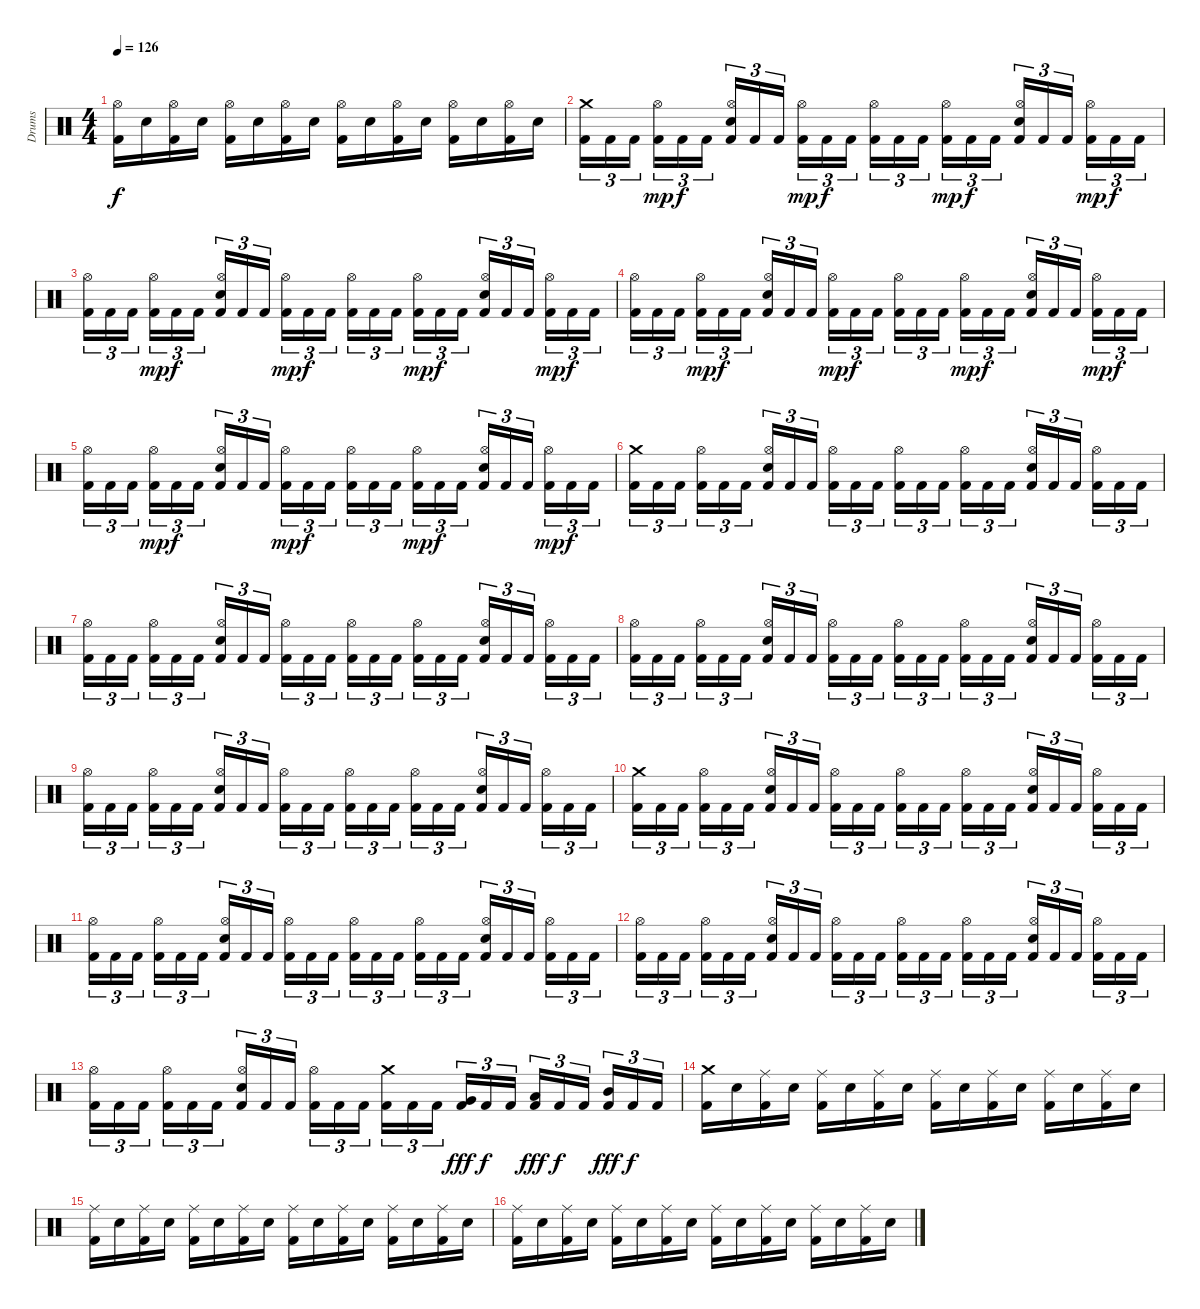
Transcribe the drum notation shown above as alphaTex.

\track ("Drums" "Drums") {instrument percussion}
\staff {score}
\articulation defaults
\ts (4 4)
\tempo 126
\clef neutral
\ks c
("Kick (hit) 2" "Hi-Hat (open)").16{dy f} "Electric Snare (hit)".16 ("Kick (hit) 2" "Hi-Hat (open)").16 "Electric Snare (hit)".16 ("Kick (hit) 2" "Hi-Hat (open)").16 "Electric Snare (hit)".16 ("Kick (hit) 2" "Hi-Hat (open)").16 "Electric Snare (hit)".16 ("Kick (hit) 2" "Hi-Hat (open)").16 "Electric Snare (hit)".16 ("Kick (hit) 2" "Hi-Hat (open)").16 "Electric Snare (hit)".16 ("Kick (hit) 2" "Hi-Hat (open)").16 "Electric Snare (hit)".16 ("Kick (hit) 2" "Hi-Hat (open)").16 "Electric Snare (hit)".16 |
("Kick (hit) 2" "Crash medium (hit)").16{tu (3 2)} "Kick (hit) 2".16{tu (3 2)} "Kick (hit) 2".16{tu (3 2)} ("Kick (hit) 2" "Hi-Hat (open)").16{tu (3 2) dy mp} "Kick (hit) 2".16{tu (3 2) dy f} "Kick (hit) 2".16{tu (3 2)} ("Kick (hit) 2" "Electric Snare (hit)" "Hi-Hat (open)").16{tu (3 2)} "Kick (hit) 2".16{tu (3 2)} "Kick (hit) 2".16{tu (3 2)} ("Kick (hit) 2" "Hi-Hat (open)").16{tu (3 2) dy mp} "Kick (hit) 2".16{tu (3 2) dy f} "Kick (hit) 2".16{tu (3 2)} ("Kick (hit) 2" "Hi-Hat (open)").16{tu (3 2)} "Kick (hit) 2".16{tu (3 2)} "Kick (hit) 2".16{tu (3 2)} ("Kick (hit) 2" "Hi-Hat (open)").16{tu (3 2) dy mp} "Kick (hit) 2".16{tu (3 2) dy f} "Kick (hit) 2".16{tu (3 2)} ("Kick (hit) 2" "Electric Snare (hit)" "Hi-Hat (open)").16{tu (3 2)} "Kick (hit) 2".16{tu (3 2)} "Kick (hit) 2".16{tu (3 2)} ("Kick (hit) 2" "Hi-Hat (open)").16{tu (3 2) dy mp} "Kick (hit) 2".16{tu (3 2) dy f} "Kick (hit) 2".16{tu (3 2)} |
("Kick (hit) 2" "Hi-Hat (open)").16{tu (3 2)} "Kick (hit) 2".16{tu (3 2)} "Kick (hit) 2".16{tu (3 2)} ("Kick (hit) 2" "Hi-Hat (open)").16{tu (3 2) dy mp} "Kick (hit) 2".16{tu (3 2) dy f} "Kick (hit) 2".16{tu (3 2)} ("Kick (hit) 2" "Electric Snare (hit)" "Hi-Hat (open)").16{tu (3 2)} "Kick (hit) 2".16{tu (3 2)} "Kick (hit) 2".16{tu (3 2)} ("Kick (hit) 2" "Hi-Hat (open)").16{tu (3 2) dy mp} "Kick (hit) 2".16{tu (3 2) dy f} "Kick (hit) 2".16{tu (3 2)} ("Kick (hit) 2" "Hi-Hat (open)").16{tu (3 2)} "Kick (hit) 2".16{tu (3 2)} "Kick (hit) 2".16{tu (3 2)} ("Kick (hit) 2" "Hi-Hat (open)").16{tu (3 2) dy mp} "Kick (hit) 2".16{tu (3 2) dy f} "Kick (hit) 2".16{tu (3 2)} ("Kick (hit) 2" "Electric Snare (hit)" "Hi-Hat (open)").16{tu (3 2)} "Kick (hit) 2".16{tu (3 2)} "Kick (hit) 2".16{tu (3 2)} ("Kick (hit) 2" "Hi-Hat (open)").16{tu (3 2) dy mp} "Kick (hit) 2".16{tu (3 2) dy f} "Kick (hit) 2".16{tu (3 2)} |
("Kick (hit) 2" "Hi-Hat (open)").16{tu (3 2)} "Kick (hit) 2".16{tu (3 2)} "Kick (hit) 2".16{tu (3 2)} ("Kick (hit) 2" "Hi-Hat (open)").16{tu (3 2) dy mp} "Kick (hit) 2".16{tu (3 2) dy f} "Kick (hit) 2".16{tu (3 2)} ("Kick (hit) 2" "Electric Snare (hit)" "Hi-Hat (open)").16{tu (3 2)} "Kick (hit) 2".16{tu (3 2)} "Kick (hit) 2".16{tu (3 2)} ("Kick (hit) 2" "Hi-Hat (open)").16{tu (3 2) dy mp} "Kick (hit) 2".16{tu (3 2) dy f} "Kick (hit) 2".16{tu (3 2)} ("Kick (hit) 2" "Hi-Hat (open)").16{tu (3 2)} "Kick (hit) 2".16{tu (3 2)} "Kick (hit) 2".16{tu (3 2)} ("Kick (hit) 2" "Hi-Hat (open)").16{tu (3 2) dy mp} "Kick (hit) 2".16{tu (3 2) dy f} "Kick (hit) 2".16{tu (3 2)} ("Kick (hit) 2" "Electric Snare (hit)" "Hi-Hat (open)").16{tu (3 2)} "Kick (hit) 2".16{tu (3 2)} "Kick (hit) 2".16{tu (3 2)} ("Kick (hit) 2" "Hi-Hat (open)").16{tu (3 2) dy mp} "Kick (hit) 2".16{tu (3 2) dy f} "Kick (hit) 2".16{tu (3 2)} |
("Kick (hit) 2" "Hi-Hat (open)").16{tu (3 2)} "Kick (hit) 2".16{tu (3 2)} "Kick (hit) 2".16{tu (3 2)} ("Kick (hit) 2" "Hi-Hat (open)").16{tu (3 2) dy mp} "Kick (hit) 2".16{tu (3 2) dy f} "Kick (hit) 2".16{tu (3 2)} ("Kick (hit) 2" "Electric Snare (hit)" "Hi-Hat (open)").16{tu (3 2)} "Kick (hit) 2".16{tu (3 2)} "Kick (hit) 2".16{tu (3 2)} ("Kick (hit) 2" "Hi-Hat (open)").16{tu (3 2) dy mp} "Kick (hit) 2".16{tu (3 2) dy f} "Kick (hit) 2".16{tu (3 2)} ("Kick (hit) 2" "Hi-Hat (open)").16{tu (3 2)} "Kick (hit) 2".16{tu (3 2)} "Kick (hit) 2".16{tu (3 2)} ("Kick (hit) 2" "Hi-Hat (open)").16{tu (3 2) dy mp} "Kick (hit) 2".16{tu (3 2) dy f} "Kick (hit) 2".16{tu (3 2)} ("Kick (hit) 2" "Electric Snare (hit)" "Hi-Hat (open)").16{tu (3 2)} "Kick (hit) 2".16{tu (3 2)} "Kick (hit) 2".16{tu (3 2)} ("Kick (hit) 2" "Hi-Hat (open)").16{tu (3 2) dy mp} "Kick (hit) 2".16{tu (3 2) dy f} "Kick (hit) 2".16{tu (3 2)} |
("Kick (hit) 2" "Crash medium (hit)").16{tu (3 2)} "Kick (hit) 2".16{tu (3 2)} "Kick (hit) 2".16{tu (3 2)} ("Kick (hit) 2" "Hi-Hat (open)").16{tu (3 2)} "Kick (hit) 2".16{tu (3 2)} "Kick (hit) 2".16{tu (3 2)} ("Kick (hit) 2" "Electric Snare (hit)" "Hi-Hat (open)").16{tu (3 2)} "Kick (hit) 2".16{tu (3 2)} "Kick (hit) 2".16{tu (3 2)} ("Kick (hit) 2" "Hi-Hat (open)").16{tu (3 2)} "Kick (hit) 2".16{tu (3 2)} "Kick (hit) 2".16{tu (3 2)} ("Kick (hit) 2" "Hi-Hat (open)").16{tu (3 2)} "Kick (hit) 2".16{tu (3 2)} "Kick (hit) 2".16{tu (3 2)} ("Kick (hit) 2" "Hi-Hat (open)").16{tu (3 2)} "Kick (hit) 2".16{tu (3 2)} "Kick (hit) 2".16{tu (3 2)} ("Kick (hit) 2" "Electric Snare (hit)" "Hi-Hat (open)").16{tu (3 2)} "Kick (hit) 2".16{tu (3 2)} "Kick (hit) 2".16{tu (3 2)} ("Kick (hit) 2" "Hi-Hat (open)").16{tu (3 2)} "Kick (hit) 2".16{tu (3 2)} "Kick (hit) 2".16{tu (3 2)} |
("Kick (hit) 2" "Hi-Hat (open)").16{tu (3 2)} "Kick (hit) 2".16{tu (3 2)} "Kick (hit) 2".16{tu (3 2)} ("Kick (hit) 2" "Hi-Hat (open)").16{tu (3 2)} "Kick (hit) 2".16{tu (3 2)} "Kick (hit) 2".16{tu (3 2)} ("Kick (hit) 2" "Electric Snare (hit)" "Hi-Hat (open)").16{tu (3 2)} "Kick (hit) 2".16{tu (3 2)} "Kick (hit) 2".16{tu (3 2)} ("Kick (hit) 2" "Hi-Hat (open)").16{tu (3 2)} "Kick (hit) 2".16{tu (3 2)} "Kick (hit) 2".16{tu (3 2)} ("Kick (hit) 2" "Hi-Hat (open)").16{tu (3 2)} "Kick (hit) 2".16{tu (3 2)} "Kick (hit) 2".16{tu (3 2)} ("Kick (hit) 2" "Hi-Hat (open)").16{tu (3 2)} "Kick (hit) 2".16{tu (3 2)} "Kick (hit) 2".16{tu (3 2)} ("Kick (hit) 2" "Electric Snare (hit)" "Hi-Hat (open)").16{tu (3 2)} "Kick (hit) 2".16{tu (3 2)} "Kick (hit) 2".16{tu (3 2)} ("Kick (hit) 2" "Hi-Hat (open)").16{tu (3 2)} "Kick (hit) 2".16{tu (3 2)} "Kick (hit) 2".16{tu (3 2)} |
("Kick (hit) 2" "Hi-Hat (open)").16{tu (3 2)} "Kick (hit) 2".16{tu (3 2)} "Kick (hit) 2".16{tu (3 2)} ("Kick (hit) 2" "Hi-Hat (open)").16{tu (3 2)} "Kick (hit) 2".16{tu (3 2)} "Kick (hit) 2".16{tu (3 2)} ("Kick (hit) 2" "Electric Snare (hit)" "Hi-Hat (open)").16{tu (3 2)} "Kick (hit) 2".16{tu (3 2)} "Kick (hit) 2".16{tu (3 2)} ("Kick (hit) 2" "Hi-Hat (open)").16{tu (3 2)} "Kick (hit) 2".16{tu (3 2)} "Kick (hit) 2".16{tu (3 2)} ("Kick (hit) 2" "Hi-Hat (open)").16{tu (3 2)} "Kick (hit) 2".16{tu (3 2)} "Kick (hit) 2".16{tu (3 2)} ("Kick (hit) 2" "Hi-Hat (open)").16{tu (3 2)} "Kick (hit) 2".16{tu (3 2)} "Kick (hit) 2".16{tu (3 2)} ("Kick (hit) 2" "Electric Snare (hit)" "Hi-Hat (open)").16{tu (3 2)} "Kick (hit) 2".16{tu (3 2)} "Kick (hit) 2".16{tu (3 2)} ("Kick (hit) 2" "Hi-Hat (open)").16{tu (3 2)} "Kick (hit) 2".16{tu (3 2)} "Kick (hit) 2".16{tu (3 2)} |
("Kick (hit) 2" "Hi-Hat (open)").16{tu (3 2)} "Kick (hit) 2".16{tu (3 2)} "Kick (hit) 2".16{tu (3 2)} ("Kick (hit) 2" "Hi-Hat (open)").16{tu (3 2)} "Kick (hit) 2".16{tu (3 2)} "Kick (hit) 2".16{tu (3 2)} ("Kick (hit) 2" "Electric Snare (hit)" "Hi-Hat (open)").16{tu (3 2)} "Kick (hit) 2".16{tu (3 2)} "Kick (hit) 2".16{tu (3 2)} ("Kick (hit) 2" "Hi-Hat (open)").16{tu (3 2)} "Kick (hit) 2".16{tu (3 2)} "Kick (hit) 2".16{tu (3 2)} ("Kick (hit) 2" "Hi-Hat (open)").16{tu (3 2)} "Kick (hit) 2".16{tu (3 2)} "Kick (hit) 2".16{tu (3 2)} ("Kick (hit) 2" "Hi-Hat (open)").16{tu (3 2)} "Kick (hit) 2".16{tu (3 2)} "Kick (hit) 2".16{tu (3 2)} ("Kick (hit) 2" "Electric Snare (hit)" "Hi-Hat (open)").16{tu (3 2)} "Kick (hit) 2".16{tu (3 2)} "Kick (hit) 2".16{tu (3 2)} ("Kick (hit) 2" "Hi-Hat (open)").16{tu (3 2)} "Kick (hit) 2".16{tu (3 2)} "Kick (hit) 2".16{tu (3 2)} |
("Kick (hit) 2" "Crash medium (hit)").16{tu (3 2)} "Kick (hit) 2".16{tu (3 2)} "Kick (hit) 2".16{tu (3 2)} ("Kick (hit) 2" "Hi-Hat (open)").16{tu (3 2)} "Kick (hit) 2".16{tu (3 2)} "Kick (hit) 2".16{tu (3 2)} ("Kick (hit) 2" "Electric Snare (hit)" "Hi-Hat (open)").16{tu (3 2)} "Kick (hit) 2".16{tu (3 2)} "Kick (hit) 2".16{tu (3 2)} ("Kick (hit) 2" "Hi-Hat (open)").16{tu (3 2)} "Kick (hit) 2".16{tu (3 2)} "Kick (hit) 2".16{tu (3 2)} ("Kick (hit) 2" "Hi-Hat (open)").16{tu (3 2)} "Kick (hit) 2".16{tu (3 2)} "Kick (hit) 2".16{tu (3 2)} ("Kick (hit) 2" "Hi-Hat (open)").16{tu (3 2)} "Kick (hit) 2".16{tu (3 2)} "Kick (hit) 2".16{tu (3 2)} ("Kick (hit) 2" "Electric Snare (hit)" "Hi-Hat (open)").16{tu (3 2)} "Kick (hit) 2".16{tu (3 2)} "Kick (hit) 2".16{tu (3 2)} ("Kick (hit) 2" "Hi-Hat (open)").16{tu (3 2)} "Kick (hit) 2".16{tu (3 2)} "Kick (hit) 2".16{tu (3 2)} |
("Kick (hit) 2" "Hi-Hat (open)").16{tu (3 2)} "Kick (hit) 2".16{tu (3 2)} "Kick (hit) 2".16{tu (3 2)} ("Kick (hit) 2" "Hi-Hat (open)").16{tu (3 2)} "Kick (hit) 2".16{tu (3 2)} "Kick (hit) 2".16{tu (3 2)} ("Kick (hit) 2" "Electric Snare (hit)" "Hi-Hat (open)").16{tu (3 2)} "Kick (hit) 2".16{tu (3 2)} "Kick (hit) 2".16{tu (3 2)} ("Kick (hit) 2" "Hi-Hat (open)").16{tu (3 2)} "Kick (hit) 2".16{tu (3 2)} "Kick (hit) 2".16{tu (3 2)} ("Kick (hit) 2" "Hi-Hat (open)").16{tu (3 2)} "Kick (hit) 2".16{tu (3 2)} "Kick (hit) 2".16{tu (3 2)} ("Kick (hit) 2" "Hi-Hat (open)").16{tu (3 2)} "Kick (hit) 2".16{tu (3 2)} "Kick (hit) 2".16{tu (3 2)} ("Kick (hit) 2" "Electric Snare (hit)" "Hi-Hat (open)").16{tu (3 2)} "Kick (hit) 2".16{tu (3 2)} "Kick (hit) 2".16{tu (3 2)} ("Kick (hit) 2" "Hi-Hat (open)").16{tu (3 2)} "Kick (hit) 2".16{tu (3 2)} "Kick (hit) 2".16{tu (3 2)} |
("Kick (hit) 2" "Hi-Hat (open)").16{tu (3 2)} "Kick (hit) 2".16{tu (3 2)} "Kick (hit) 2".16{tu (3 2)} ("Kick (hit) 2" "Hi-Hat (open)").16{tu (3 2)} "Kick (hit) 2".16{tu (3 2)} "Kick (hit) 2".16{tu (3 2)} ("Kick (hit) 2" "Electric Snare (hit)" "Hi-Hat (open)").16{tu (3 2)} "Kick (hit) 2".16{tu (3 2)} "Kick (hit) 2".16{tu (3 2)} ("Kick (hit) 2" "Hi-Hat (open)").16{tu (3 2)} "Kick (hit) 2".16{tu (3 2)} "Kick (hit) 2".16{tu (3 2)} ("Kick (hit) 2" "Hi-Hat (open)").16{tu (3 2)} "Kick (hit) 2".16{tu (3 2)} "Kick (hit) 2".16{tu (3 2)} ("Kick (hit) 2" "Hi-Hat (open)").16{tu (3 2)} "Kick (hit) 2".16{tu (3 2)} "Kick (hit) 2".16{tu (3 2)} ("Kick (hit) 2" "Electric Snare (hit)" "Hi-Hat (open)").16{tu (3 2)} "Kick (hit) 2".16{tu (3 2)} "Kick (hit) 2".16{tu (3 2)} ("Kick (hit) 2" "Hi-Hat (open)").16{tu (3 2)} "Kick (hit) 2".16{tu (3 2)} "Kick (hit) 2".16{tu (3 2)} |
("Kick (hit) 2" "Hi-Hat (open)").16{tu (3 2)} "Kick (hit) 2".16{tu (3 2)} "Kick (hit) 2".16{tu (3 2)} ("Kick (hit) 2" "Hi-Hat (open)").16{tu (3 2)} "Kick (hit) 2".16{tu (3 2)} "Kick (hit) 2".16{tu (3 2)} ("Kick (hit) 2" "Electric Snare (hit)" "Hi-Hat (open)").16{tu (3 2)} "Kick (hit) 2".16{tu (3 2)} "Kick (hit) 2".16{tu (3 2)} ("Kick (hit) 2" "Hi-Hat (open)").16{tu (3 2)} "Kick (hit) 2".16{tu (3 2)} "Kick (hit) 2".16{tu (3 2)} ("Kick (hit) 2" "Crash medium (hit)").16{tu (3 2)} "Kick (hit) 2".16{tu (3 2)} "Kick (hit) 2".16{tu (3 2)} ("Kick (hit) 2" "Very Low Tom (hit)").16{tu (3 2) dy fff} "Kick (hit) 2".16{tu (3 2) dy f} "Kick (hit) 2".16{tu (3 2)} ("Kick (hit) 2" "Low Tom (hit)").16{tu (3 2) dy fff} "Kick (hit) 2".16{tu (3 2) dy f} "Kick (hit) 2".16{tu (3 2)} ("Kick (hit) 2" "Mid Tom (hit)").16{tu (3 2) dy fff} "Kick (hit) 2".16{tu (3 2) dy f} "Kick (hit) 2".16{tu (3 2)} |
("Kick (hit) 2" "Crash medium (hit)").16 "Electric Snare (hit)".16 ("Kick (hit) 2" "Ride (middle)").16 "Electric Snare (hit)".16 ("Kick (hit) 2" "Ride (middle)").16 "Electric Snare (hit)".16 ("Kick (hit) 2" "Ride (middle)").16 "Electric Snare (hit)".16 ("Kick (hit) 2" "Ride (middle)").16 "Electric Snare (hit)".16 ("Kick (hit) 2" "Ride (middle)").16 "Electric Snare (hit)".16 ("Kick (hit) 2" "Ride (middle)").16 "Electric Snare (hit)".16 ("Kick (hit) 2" "Ride (middle)").16 "Electric Snare (hit)".16 |
("Kick (hit) 2" "Ride (middle)").16 "Electric Snare (hit)".16 ("Kick (hit) 2" "Ride (middle)").16 "Electric Snare (hit)".16 ("Kick (hit) 2" "Ride (middle)").16 "Electric Snare (hit)".16 ("Kick (hit) 2" "Ride (middle)").16 "Electric Snare (hit)".16 ("Kick (hit) 2" "Ride (middle)").16 "Electric Snare (hit)".16 ("Kick (hit) 2" "Ride (middle)").16 "Electric Snare (hit)".16 ("Kick (hit) 2" "Ride (middle)").16 "Electric Snare (hit)".16 ("Kick (hit) 2" "Ride (middle)").16 "Electric Snare (hit)".16 |
("Kick (hit) 2" "Ride (middle)").16 "Electric Snare (hit)".16 ("Kick (hit) 2" "Ride (middle)").16 "Electric Snare (hit)".16 ("Kick (hit) 2" "Ride (middle)").16 "Electric Snare (hit)".16 ("Kick (hit) 2" "Ride (middle)").16 "Electric Snare (hit)".16 ("Kick (hit) 2" "Ride (middle)").16 "Electric Snare (hit)".16 ("Kick (hit) 2" "Ride (middle)").16 "Electric Snare (hit)".16 ("Kick (hit) 2" "Ride (middle)").16 "Electric Snare (hit)".16 ("Kick (hit) 2" "Ride (middle)").16 "Electric Snare (hit)".16
